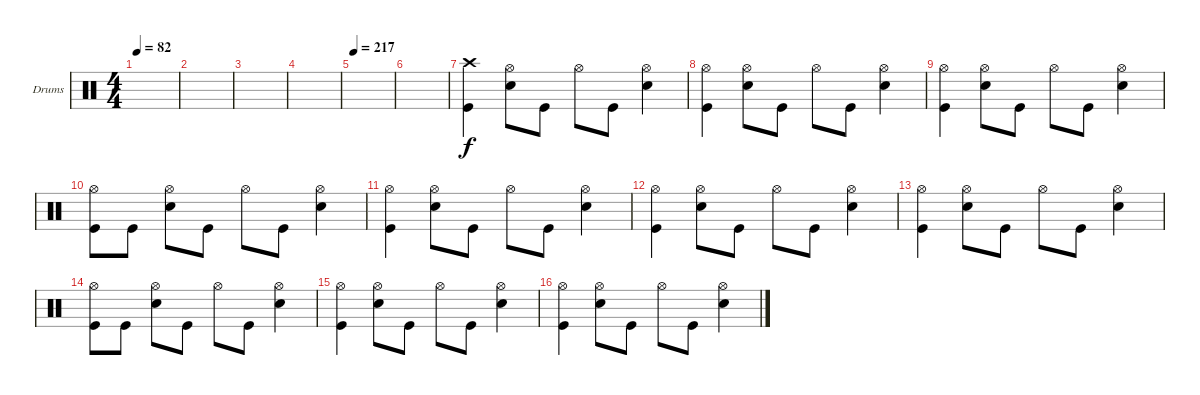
\bracketExtendMode groupsimilarinstruments
\firstSystemTrackNameOrientation horizontal
\otherSystemsTrackNameOrientation horizontal
\track ("Drumkit" "Drums") {instrument percussion}
\staff {score}
\articulation defaults
\ts (4 4)
\tempo 82
\clef neutral
\ks c
|
|
|
|
\tempo 217
|
|
("Kick (hit)" "Crash high (hit)").4 ("Hi-Hat (open)" "Snare (hit) 2").8 "Kick (hit)".8 "Hi-Hat (open)".8 "Kick (hit)".8 ("Snare (hit) 2" "Hi-Hat (open)").4 |
("Kick (hit)" "Hi-Hat (open)").4 ("Hi-Hat (open)" "Snare (hit) 2").8 "Kick (hit)".8 "Hi-Hat (open)".8 "Kick (hit)".8 ("Snare (hit) 2" "Hi-Hat (open)").4 |
("Kick (hit)" "Hi-Hat (open)").4 ("Hi-Hat (open)" "Snare (hit) 2").8 "Kick (hit)".8 "Hi-Hat (open)".8 "Kick (hit)".8 ("Snare (hit) 2" "Hi-Hat (open)").4 |
("Kick (hit)" "Hi-Hat (open)").8 "Kick (hit)".8 ("Snare (hit) 2" "Hi-Hat (open)").8 "Kick (hit)".8 "Hi-Hat (open)".8 "Kick (hit)".8 ("Snare (hit) 2" "Hi-Hat (open)").4 |
("Kick (hit)" "Hi-Hat (open)").4 ("Hi-Hat (open)" "Snare (hit) 2").8 "Kick (hit)".8 "Hi-Hat (open)".8 "Kick (hit)".8 ("Snare (hit) 2" "Hi-Hat (open)").4 |
("Kick (hit)" "Hi-Hat (open)").4 ("Hi-Hat (open)" "Snare (hit) 2").8 "Kick (hit)".8 "Hi-Hat (open)".8 "Kick (hit)".8 ("Snare (hit) 2" "Hi-Hat (open)").4 |
("Kick (hit)" "Hi-Hat (open)").4 ("Hi-Hat (open)" "Snare (hit) 2").8 "Kick (hit)".8 "Hi-Hat (open)".8 "Kick (hit)".8 ("Snare (hit) 2" "Hi-Hat (open)").4 |
("Kick (hit)" "Hi-Hat (open)").8 "Kick (hit)".8 ("Snare (hit) 2" "Hi-Hat (open)").8 "Kick (hit)".8 "Hi-Hat (open)".8 "Kick (hit)".8 ("Snare (hit) 2" "Hi-Hat (open)").4 |
("Kick (hit)" "Hi-Hat (open)").4 ("Hi-Hat (open)" "Snare (hit) 2").8 "Kick (hit)".8 "Hi-Hat (open)".8 "Kick (hit)".8 ("Snare (hit) 2" "Hi-Hat (open)").4 |
("Kick (hit)" "Hi-Hat (open)").4 ("Hi-Hat (open)" "Snare (hit) 2").8 "Kick (hit)".8 "Hi-Hat (open)".8 "Kick (hit)".8 ("Snare (hit) 2" "Hi-Hat (open)").4
